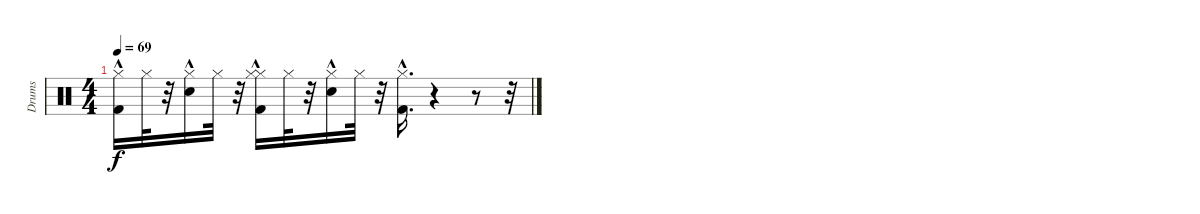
\track ("Drums" "Drums") {instrument percussion}
\staff {score}
\articulation defaults
\ts (4 4)
\tempo 69
\clef neutral
\ks c
("Hi-Hat (closed)" "Kick (hit) 2"{hac}).16{dy f} "Hi-Hat (closed)".32 r.32 ("Hi-Hat (closed)" "Snare (hit) 2"{hac}).16 "Hi-Hat (closed)".32 r.32 ("Hi-Hat (closed)" "Hi-Hat (closed)" "Kick (hit) 2"{hac}).16 "Hi-Hat (closed)".32 r.32 ("Hi-Hat (closed)" "Snare (hit) 2"{hac}).16 "Hi-Hat (closed)".32 r.32 ("Hi-Hat (closed)" "Kick (hit) 2"{hac}).16{d} r.4 r.8 r.32
